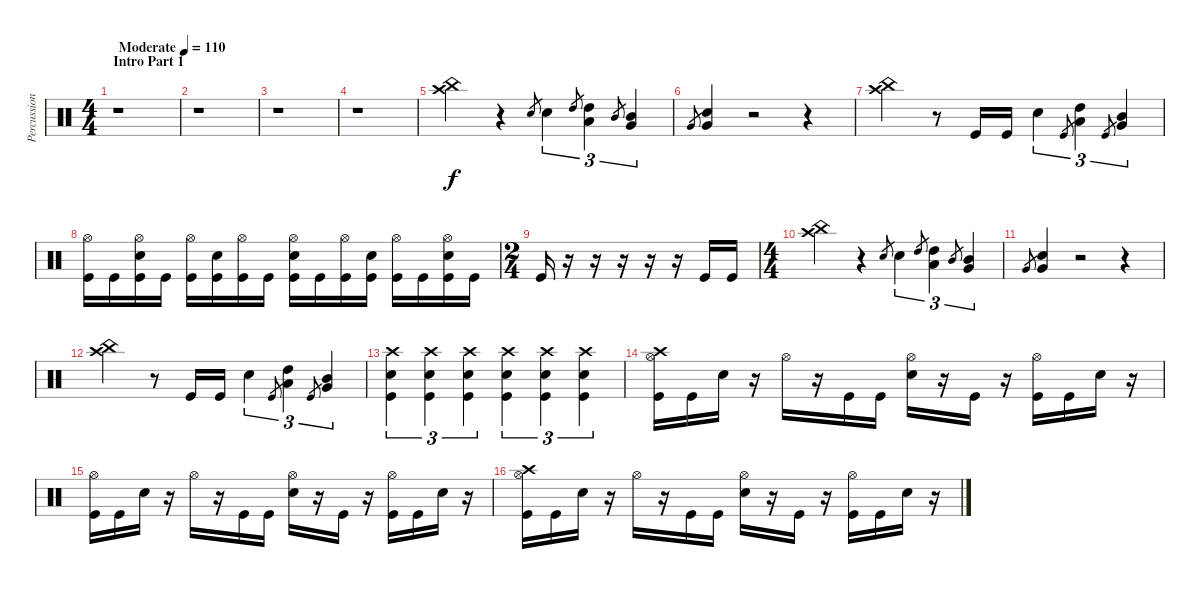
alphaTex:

\track ("Percussion" "Percussion") {instrument percussion}
\staff {score}
\articulation defaults
\ts (4 4)
\section ("" "Intro Part 1")
\tempo (110 "Moderate")
\clef neutral
\ks c
r.1{dy f} |
r.1 |
r.1 |
r.1 |
("Crash high (hit)" "China (hit)").4 r.4 "Snare (hit) 2".8{gr} "Snare (hit) 2".4{tu (3 2)} "High Tom (hit)".8{gr} ("High Tom (hit)" "Low Tom (hit)").4{tu (3 2)} "Mid Tom (hit)".8{gr} ("Mid Tom (hit)" "Very Low Tom (hit)").4{tu (3 2)} |
"Very Low Tom (hit)".8{gr} ("Snare (hit) 2" "Very Low Tom (hit)").4 r.2 r.4 |
("Crash high (hit)" "China (hit)").4 r.8 "Kick (hit)".16 "Kick (hit)".16 "Snare (hit) 2".4{tu (3 2)} "Kick (hit)".8{gr} ("High Tom (hit)" "Low Tom (hit)").4{tu (3 2)} "Kick (hit)".8{gr} ("Mid Tom (hit)" "Very Low Tom (hit)").4{tu (3 2)} |
("Hi-Hat (open)" "Kick (hit)").16 "Kick (hit)".16 ("Hi-Hat (open)" "Snare (hit) 2" "Kick (hit)").16 "Kick (hit)".16 ("Hi-Hat (open)" "Kick (hit)").16 ("Snare (hit) 2" "Kick (hit)").16 ("Hi-Hat (open)" "Kick (hit)").16 "Kick (hit)".16 ("Hi-Hat (open)" "Snare (hit) 2" "Kick (hit)").16 "Kick (hit)".16 ("Hi-Hat (open)" "Kick (hit)").16 ("Snare (hit) 2" "Kick (hit)").16 ("Hi-Hat (open)" "Kick (hit)").16 "Kick (hit)".16 ("Hi-Hat (open)" "Snare (hit) 2" "Kick (hit)").16 "Kick (hit)".16 |
\ts (2 4)
"Kick (hit)".16 r.16 r.16 r.16 r.16 r.16 "Kick (hit)".16 "Kick (hit)".16 |
\ts (4 4)
("Crash high (hit)" "China (hit)").4 r.4 "Snare (hit) 2".8{gr} "Snare (hit) 2".4{tu (3 2)} "High Tom (hit)".8{gr} ("High Tom (hit)" "Low Tom (hit)").4{tu (3 2)} "Mid Tom (hit)".8{gr} ("Mid Tom (hit)" "Very Low Tom (hit)").4{tu (3 2)} |
"Very Low Tom (hit)".8{gr} ("Snare (hit) 2" "Very Low Tom (hit)").4 r.2 r.4 |
("Crash high (hit)" "China (hit)").4 r.8 "Kick (hit)".16 "Kick (hit)".16 "Snare (hit) 2".4{tu (3 2)} "Kick (hit)".8{gr} ("High Tom (hit)" "Low Tom (hit)").4{tu (3 2)} "Kick (hit)".8{gr} ("Mid Tom (hit)" "Very Low Tom (hit)").4{tu (3 2)} |
("Crash high (hit)" "Snare (hit) 2" "Kick (hit)").4{tu (3 2)} ("Crash high (hit)" "Snare (hit) 2" "Kick (hit)").4{tu (3 2)} ("Crash high (hit)" "Snare (hit) 2" "Kick (hit)").4{tu (3 2)} ("Crash high (hit)" "Snare (hit) 2" "Kick (hit)").4{tu (3 2)} ("Crash high (hit)" "Snare (hit) 2" "Kick (hit)").4{tu (3 2)} ("Crash high (hit)" "Snare (hit) 2" "Kick (hit)").4{tu (3 2)} |
("Crash high (hit)" "Hi-Hat (open)" "Kick (hit)").16 "Kick (hit)".16 "Snare (hit) 2".16 r.16 "Hi-Hat (open)".16 r.16 "Kick (hit)".16 "Kick (hit)".16 ("Hi-Hat (open)" "Snare (hit) 2").16 r.16 "Kick (hit)".16 r.16 ("Hi-Hat (open)" "Kick (hit)").16 "Kick (hit)".16 "Snare (hit) 2".16 r.16 |
("Hi-Hat (open)" "Kick (hit)").16 "Kick (hit)".16 "Snare (hit) 2".16 r.16 "Hi-Hat (open)".16 r.16 "Kick (hit)".16 "Kick (hit)".16 ("Hi-Hat (open)" "Snare (hit) 2").16 r.16 "Kick (hit)".16 r.16 ("Hi-Hat (open)" "Kick (hit)").16 "Kick (hit)".16 "Snare (hit) 2".16 r.16 |
("Crash high (hit)" "Hi-Hat (open)" "Kick (hit)").16 "Kick (hit)".16 "Snare (hit) 2".16 r.16 "Hi-Hat (open)".16 r.16 "Kick (hit)".16 "Kick (hit)".16 ("Hi-Hat (open)" "Snare (hit) 2").16 r.16 "Kick (hit)".16 r.16 ("Hi-Hat (open)" "Kick (hit)").16 "Kick (hit)".16 "Snare (hit) 2".16 r.16
